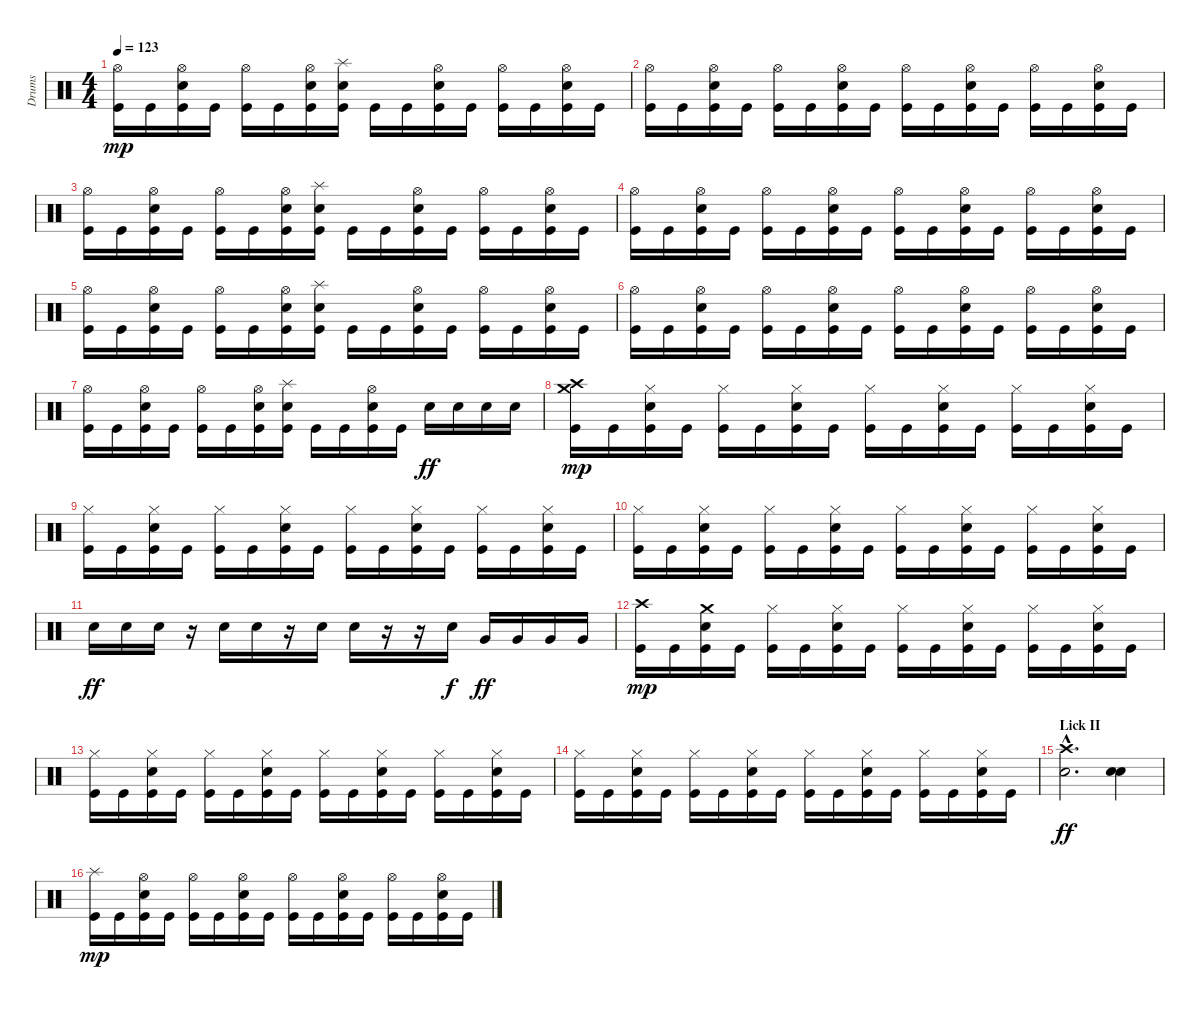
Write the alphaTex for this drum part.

\track ("Drums" "Drums") {instrument percussion}
\staff {score}
\articulation defaults
\ts (4 4)
\tempo 123
\clef neutral
\ks c
("Hi-Hat (open)" "Kick (hit)").16{dy mp} "Kick (hit)".16 ("Hi-Hat (open)" "Electric Snare (hit)" "Kick (hit)").16 "Kick (hit)".16 ("Hi-Hat (open)" "Kick (hit)").16 "Kick (hit)".16 ("Hi-Hat (open)" "Electric Snare (hit)" "Kick (hit)").16 ("Splash (hit)" "Electric Snare (hit)" "Kick (hit)").16 "Kick (hit)".16 "Kick (hit)".16 ("Hi-Hat (open)" "Electric Snare (hit)" "Kick (hit)").16 "Kick (hit)".16 ("Hi-Hat (open)" "Kick (hit)").16 "Kick (hit)".16 ("Hi-Hat (open)" "Electric Snare (hit)" "Kick (hit)").16 "Kick (hit)".16 |
("Hi-Hat (open)" "Kick (hit)").16 "Kick (hit)".16 ("Hi-Hat (open)" "Electric Snare (hit)" "Kick (hit)").16 "Kick (hit)".16 ("Hi-Hat (open)" "Kick (hit)").16 "Kick (hit)".16 ("Hi-Hat (open)" "Electric Snare (hit)" "Kick (hit)").16 "Kick (hit)".16 ("Hi-Hat (open)" "Kick (hit)").16 "Kick (hit)".16 ("Hi-Hat (open)" "Electric Snare (hit)" "Kick (hit)").16 "Kick (hit)".16 ("Hi-Hat (open)" "Kick (hit)").16 "Kick (hit)".16 ("Hi-Hat (open)" "Electric Snare (hit)" "Kick (hit)").16 "Kick (hit)".16 |
("Hi-Hat (open)" "Kick (hit)").16 "Kick (hit)".16 ("Hi-Hat (open)" "Electric Snare (hit)" "Kick (hit)").16 "Kick (hit)".16 ("Hi-Hat (open)" "Kick (hit)").16 "Kick (hit)".16 ("Hi-Hat (open)" "Electric Snare (hit)" "Kick (hit)").16 ("Splash (hit)" "Electric Snare (hit)" "Kick (hit)").16 "Kick (hit)".16 "Kick (hit)".16 ("Hi-Hat (open)" "Electric Snare (hit)" "Kick (hit)").16 "Kick (hit)".16 ("Hi-Hat (open)" "Kick (hit)").16 "Kick (hit)".16 ("Hi-Hat (open)" "Electric Snare (hit)" "Kick (hit)").16 "Kick (hit)".16 |
("Hi-Hat (open)" "Kick (hit)").16 "Kick (hit)".16 ("Hi-Hat (open)" "Electric Snare (hit)" "Kick (hit)").16 "Kick (hit)".16 ("Hi-Hat (open)" "Kick (hit)").16 "Kick (hit)".16 ("Hi-Hat (open)" "Electric Snare (hit)" "Kick (hit)").16 "Kick (hit)".16 ("Hi-Hat (open)" "Kick (hit)").16 "Kick (hit)".16 ("Hi-Hat (open)" "Electric Snare (hit)" "Kick (hit)").16 "Kick (hit)".16 ("Hi-Hat (open)" "Kick (hit)").16 "Kick (hit)".16 ("Hi-Hat (open)" "Electric Snare (hit)" "Kick (hit)").16 "Kick (hit)".16 |
("Hi-Hat (open)" "Kick (hit)").16 "Kick (hit)".16 ("Hi-Hat (open)" "Electric Snare (hit)" "Kick (hit)").16 "Kick (hit)".16 ("Hi-Hat (open)" "Kick (hit)").16 "Kick (hit)".16 ("Hi-Hat (open)" "Electric Snare (hit)" "Kick (hit)").16 ("Splash (hit)" "Electric Snare (hit)" "Kick (hit)").16 "Kick (hit)".16 "Kick (hit)".16 ("Hi-Hat (open)" "Electric Snare (hit)" "Kick (hit)").16 "Kick (hit)".16 ("Hi-Hat (open)" "Kick (hit)").16 "Kick (hit)".16 ("Hi-Hat (open)" "Electric Snare (hit)" "Kick (hit)").16 "Kick (hit)".16 |
("Hi-Hat (open)" "Kick (hit)").16 "Kick (hit)".16 ("Hi-Hat (open)" "Electric Snare (hit)" "Kick (hit)").16 "Kick (hit)".16 ("Hi-Hat (open)" "Kick (hit)").16 "Kick (hit)".16 ("Hi-Hat (open)" "Electric Snare (hit)" "Kick (hit)").16 "Kick (hit)".16 ("Hi-Hat (open)" "Kick (hit)").16 "Kick (hit)".16 ("Hi-Hat (open)" "Electric Snare (hit)" "Kick (hit)").16 "Kick (hit)".16 ("Hi-Hat (open)" "Kick (hit)").16 "Kick (hit)".16 ("Hi-Hat (open)" "Electric Snare (hit)" "Kick (hit)").16 "Kick (hit)".16 |
("Hi-Hat (open)" "Kick (hit)").16 "Kick (hit)".16 ("Hi-Hat (open)" "Electric Snare (hit)" "Kick (hit)").16 "Kick (hit)".16 ("Hi-Hat (open)" "Kick (hit)").16 "Kick (hit)".16 ("Hi-Hat (open)" "Electric Snare (hit)" "Kick (hit)").16 ("Splash (hit)" "Electric Snare (hit)" "Kick (hit)").16 "Kick (hit)".16 "Kick (hit)".16 ("Hi-Hat (open)" "Electric Snare (hit)" "Kick (hit)").16 "Kick (hit)".16 "Electric Snare (hit)".16{dy ff} "Electric Snare (hit)".16 "Electric Snare (hit)".16 "Electric Snare (hit)".16 |
("Crash high (hit)" "Crash medium (hit)" "Kick (hit)").16{dy mp} "Kick (hit)".16 ("Hi-Hat (closed)" "Electric Snare (hit)" "Kick (hit)").16 "Kick (hit)".16 ("Hi-Hat (closed)" "Kick (hit)").16 "Kick (hit)".16 ("Hi-Hat (closed)" "Electric Snare (hit)" "Kick (hit)").16 "Kick (hit)".16 ("Hi-Hat (closed)" "Kick (hit)").16 "Kick (hit)".16 ("Hi-Hat (closed)" "Electric Snare (hit)" "Kick (hit)").16 "Kick (hit)".16 ("Hi-Hat (closed)" "Kick (hit)").16 "Kick (hit)".16 ("Hi-Hat (closed)" "Electric Snare (hit)" "Kick (hit)").16 "Kick (hit)".16 |
("Hi-Hat (closed)" "Kick (hit)").16 "Kick (hit)".16 ("Hi-Hat (closed)" "Electric Snare (hit)" "Kick (hit)").16 "Kick (hit)".16 ("Hi-Hat (closed)" "Kick (hit)").16 "Kick (hit)".16 ("Hi-Hat (closed)" "Electric Snare (hit)" "Kick (hit)").16 "Kick (hit)".16 ("Hi-Hat (closed)" "Kick (hit)").16 "Kick (hit)".16 ("Hi-Hat (closed)" "Electric Snare (hit)" "Kick (hit)").16 "Kick (hit)".16 ("Hi-Hat (closed)" "Kick (hit)").16 "Kick (hit)".16 ("Hi-Hat (closed)" "Electric Snare (hit)" "Kick (hit)").16 "Kick (hit)".16 |
("Hi-Hat (closed)" "Kick (hit)").16 "Kick (hit)".16 ("Hi-Hat (closed)" "Electric Snare (hit)" "Kick (hit)").16 "Kick (hit)".16 ("Hi-Hat (closed)" "Kick (hit)").16 "Kick (hit)".16 ("Hi-Hat (closed)" "Electric Snare (hit)" "Kick (hit)").16 "Kick (hit)".16 ("Hi-Hat (closed)" "Kick (hit)").16 "Kick (hit)".16 ("Hi-Hat (closed)" "Electric Snare (hit)" "Kick (hit)").16 "Kick (hit)".16 ("Hi-Hat (closed)" "Kick (hit)").16 "Kick (hit)".16 ("Hi-Hat (closed)" "Electric Snare (hit)" "Kick (hit)").16 "Kick (hit)".16 |
"Snare (hit) 2".16{dy ff} "Snare (hit) 2".16 "Snare (hit) 2".16 r.16 "Snare (hit) 2".16 "Snare (hit) 2".16 r.16 "Snare (hit) 2".16 "Snare (hit) 2".16 r.16 r.16 "Snare (hit) 2".16{dy f} "Very Low Tom (hit)".16{dy ff} "Very Low Tom (hit)".16 "Very Low Tom (hit)".16 "Very Low Tom (hit)".16 |
("Crash high (hit)" "Kick (hit)").16{dy mp} "Kick (hit)".16 ("Crash medium (hit)" "Electric Snare (hit)" "Kick (hit)").16 "Kick (hit)".16 ("Hi-Hat (closed)" "Kick (hit)").16 "Kick (hit)".16 ("Hi-Hat (closed)" "Electric Snare (hit)" "Kick (hit)").16 "Kick (hit)".16 ("Hi-Hat (closed)" "Kick (hit)").16 "Kick (hit)".16 ("Hi-Hat (closed)" "Electric Snare (hit)" "Kick (hit)").16 "Kick (hit)".16 ("Hi-Hat (closed)" "Kick (hit)").16 "Kick (hit)".16 ("Hi-Hat (closed)" "Electric Snare (hit)" "Kick (hit)").16 "Kick (hit)".16 |
("Hi-Hat (closed)" "Kick (hit)").16 "Kick (hit)".16 ("Hi-Hat (closed)" "Electric Snare (hit)" "Kick (hit)").16 "Kick (hit)".16 ("Hi-Hat (closed)" "Kick (hit)").16 "Kick (hit)".16 ("Hi-Hat (closed)" "Electric Snare (hit)" "Kick (hit)").16 "Kick (hit)".16 ("Hi-Hat (closed)" "Kick (hit)").16 "Kick (hit)".16 ("Hi-Hat (closed)" "Electric Snare (hit)" "Kick (hit)").16 "Kick (hit)".16 ("Hi-Hat (closed)" "Kick (hit)").16 "Kick (hit)".16 ("Hi-Hat (closed)" "Electric Snare (hit)" "Kick (hit)").16 "Kick (hit)".16 |
("Hi-Hat (closed)" "Kick (hit)").16 "Kick (hit)".16 ("Hi-Hat (closed)" "Electric Snare (hit)" "Kick (hit)").16 "Kick (hit)".16 ("Hi-Hat (closed)" "Kick (hit)").16 "Kick (hit)".16 ("Hi-Hat (closed)" "Electric Snare (hit)" "Kick (hit)").16 "Kick (hit)".16 ("Hi-Hat (closed)" "Kick (hit)").16 "Kick (hit)".16 ("Hi-Hat (closed)" "Electric Snare (hit)" "Kick (hit)").16 "Kick (hit)".16 ("Hi-Hat (closed)" "Kick (hit)").16 "Kick (hit)".16 ("Hi-Hat (closed)" "Electric Snare (hit)" "Kick (hit)").16 "Kick (hit)".16 |
\section ("" "Lick II")
("Crash high (hit)"{hac} "Electric Snare (hit)"{hac}).2{d dy ff} ("Electric Snare (hit)" "Snare (hit) 2").4 |
("Splash (hit)" "Kick (hit)").16{dy mp} "Kick (hit)".16 ("Hi-Hat (open)" "Electric Snare (hit)" "Kick (hit)").16 "Kick (hit)".16 ("Hi-Hat (open)" "Kick (hit)").16 "Kick (hit)".16 ("Hi-Hat (open)" "Electric Snare (hit)" "Kick (hit)").16 "Kick (hit)".16 ("Hi-Hat (open)" "Kick (hit)").16 "Kick (hit)".16 ("Hi-Hat (open)" "Electric Snare (hit)" "Kick (hit)").16 "Kick (hit)".16 ("Hi-Hat (open)" "Kick (hit)").16 "Kick (hit)".16 ("Hi-Hat (open)" "Electric Snare (hit)" "Kick (hit)").16 "Kick (hit)".16
